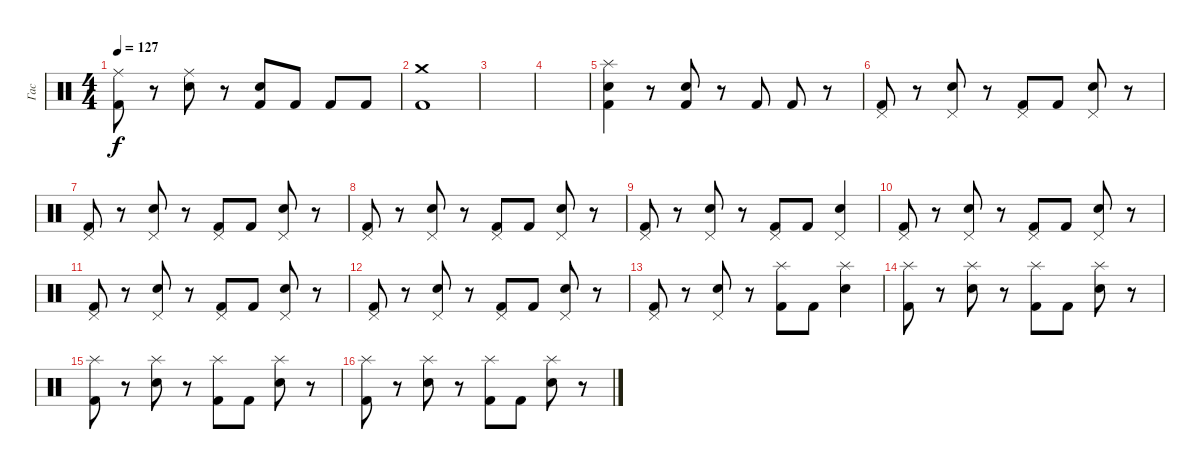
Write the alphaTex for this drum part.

\track ("Гас" "Гас") {instrument percussion}
\staff {score}
\articulation defaults
\ts (4 4)
\tempo 127
\clef neutral
\ks c
("Ride (middle)" "Kick (hit) 2").8{dy f} r.8 ("Ride (middle)" "Electric Snare (hit)").8 r.8 ("Electric Snare (hit)" "Kick (hit) 2").8 "Kick (hit) 2".8 "Kick (hit) 2".8 "Kick (hit) 2".8 |
("Crash medium (hit)" "Kick (hit) 2").1 |
|
|
("Splash (hit)" "Electric Snare (hit)" "Kick (hit) 2").4 r.8 ("Electric Snare (hit)" "Kick (hit) 2").8 r.8 "Kick (hit) 2".8 "Kick (hit) 2".8 r.8 |
("Pedal Hi-Hat (hit)" "Kick (hit) 2").8 r.8 ("Pedal Hi-Hat (hit)" "Electric Snare (hit)").8 r.8 ("Pedal Hi-Hat (hit)" "Kick (hit) 2").8 "Kick (hit) 2".8 ("Pedal Hi-Hat (hit)" "Electric Snare (hit)").8 r.8 |
("Pedal Hi-Hat (hit)" "Kick (hit) 2").8 r.8 ("Pedal Hi-Hat (hit)" "Electric Snare (hit)").8 r.8 ("Pedal Hi-Hat (hit)" "Kick (hit) 2").8 "Kick (hit) 2".8 ("Pedal Hi-Hat (hit)" "Electric Snare (hit)").8 r.8 |
("Pedal Hi-Hat (hit)" "Kick (hit) 2").8 r.8 ("Pedal Hi-Hat (hit)" "Electric Snare (hit)").8 r.8 ("Pedal Hi-Hat (hit)" "Kick (hit) 2").8 "Kick (hit) 2".8 ("Pedal Hi-Hat (hit)" "Electric Snare (hit)").8 r.8 |
("Pedal Hi-Hat (hit)" "Kick (hit) 2").8 r.8 ("Pedal Hi-Hat (hit)" "Electric Snare (hit)").8 r.8 ("Pedal Hi-Hat (hit)" "Kick (hit) 2").8 "Kick (hit) 2".8 ("Pedal Hi-Hat (hit)" "Electric Snare (hit)").4 |
("Pedal Hi-Hat (hit)" "Kick (hit) 2").8 r.8 ("Pedal Hi-Hat (hit)" "Electric Snare (hit)").8 r.8 ("Pedal Hi-Hat (hit)" "Kick (hit) 2").8 "Kick (hit) 2".8 ("Pedal Hi-Hat (hit)" "Electric Snare (hit)").8 r.8 |
("Pedal Hi-Hat (hit)" "Kick (hit) 2").8 r.8 ("Pedal Hi-Hat (hit)" "Electric Snare (hit)").8 r.8 ("Pedal Hi-Hat (hit)" "Kick (hit) 2").8 "Kick (hit) 2".8 ("Pedal Hi-Hat (hit)" "Electric Snare (hit)").8 r.8 |
("Pedal Hi-Hat (hit)" "Kick (hit) 2").8 r.8 ("Pedal Hi-Hat (hit)" "Electric Snare (hit)").8 r.8 ("Pedal Hi-Hat (hit)" "Kick (hit) 2").8 "Kick (hit) 2".8 ("Pedal Hi-Hat (hit)" "Electric Snare (hit)").8 r.8 |
("Pedal Hi-Hat (hit)" "Kick (hit) 2").8 r.8 ("Pedal Hi-Hat (hit)" "Electric Snare (hit)").8 r.8 ("Splash (hit)" "Kick (hit) 2").8 "Kick (hit) 2".8 ("Splash (hit)" "Electric Snare (hit)").4 |
("Splash (hit)" "Kick (hit) 2").8 r.8 ("Splash (hit)" "Electric Snare (hit)").8 r.8 ("Splash (hit)" "Kick (hit) 2").8 "Kick (hit) 2".8 ("Splash (hit)" "Electric Snare (hit)").8 r.8 |
("Splash (hit)" "Kick (hit) 2").8 r.8 ("Splash (hit)" "Electric Snare (hit)").8 r.8 ("Splash (hit)" "Kick (hit) 2").8 "Kick (hit) 2".8 ("Splash (hit)" "Electric Snare (hit)").8 r.8 |
("Splash (hit)" "Kick (hit) 2").8 r.8 ("Splash (hit)" "Electric Snare (hit)").8 r.8 ("Splash (hit)" "Kick (hit) 2").8 "Kick (hit) 2".8 ("Splash (hit)" "Electric Snare (hit)").8 r.8
